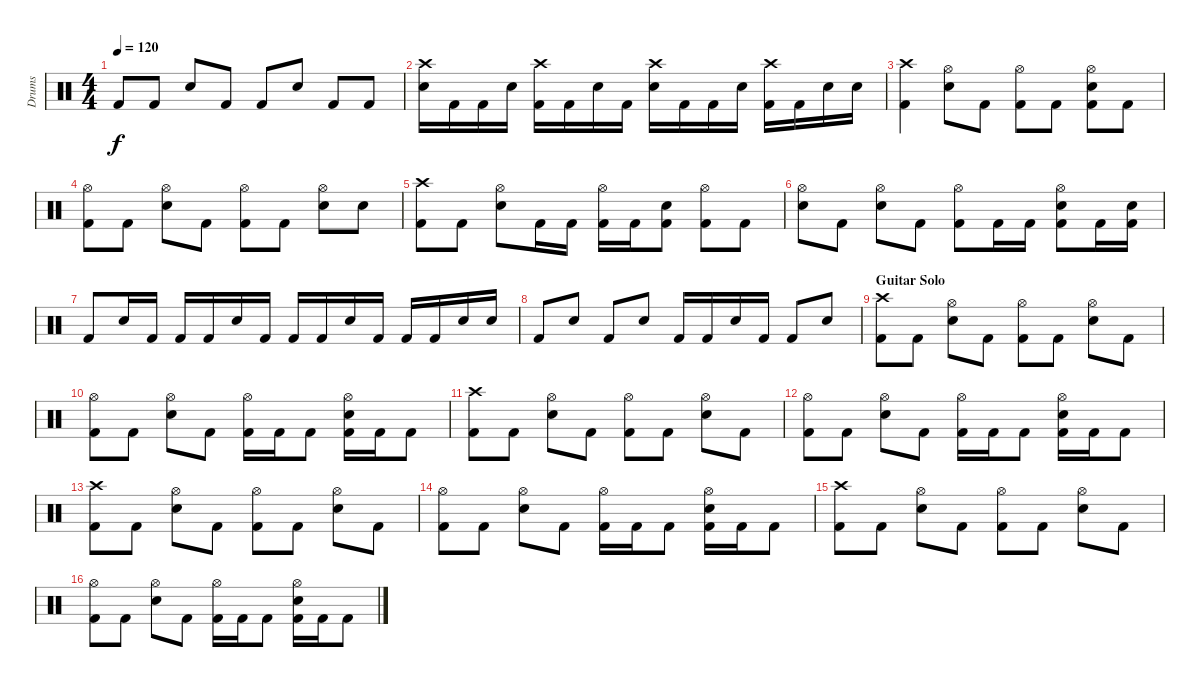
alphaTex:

\track ("Drums" "Drums") {instrument percussion}
\staff {score}
\articulation defaults
\ts (4 4)
\tempo 120
\clef neutral
\ks c "Kick (hit) 2".8{dy f} "Kick (hit) 2".8 "Electric Snare (hit)".8 "Kick (hit) 2".8 "Kick (hit) 2".8 "Electric Snare (hit)".8 "Kick (hit) 2".8 "Kick (hit) 2".8
|
("Crash high (hit)" "Electric Snare (hit)").16 "Kick (hit) 2".16 "Kick (hit) 2".16 "Electric Snare (hit)".16 ("Crash high (hit)" "Kick (hit) 2").16 "Kick (hit) 2".16 "Electric Snare (hit)".16 "Kick (hit) 2".16 ("Crash high (hit)" "Electric Snare (hit)").16 "Kick (hit) 2".16 "Kick (hit) 2".16 "Electric Snare (hit)".16 ("Crash high (hit)" "Kick (hit) 2").16 "Kick (hit) 2".16 "Electric Snare (hit)".16 "Electric Snare (hit)".16 |
("Crash high (hit)" "Kick (hit) 2").4 ("Hi-Hat (open)" "Electric Snare (hit)").8 "Kick (hit) 2".8 ("Hi-Hat (open)" "Kick (hit) 2").8 "Kick (hit) 2".8 ("Hi-Hat (open)" "Electric Snare (hit)" "Kick (hit) 2").8 "Kick (hit) 2".8 |
("Hi-Hat (open)" "Kick (hit) 2").8 "Kick (hit) 2".8 ("Hi-Hat (open)" "Electric Snare (hit)").8 "Kick (hit) 2".8 ("Hi-Hat (open)" "Kick (hit) 2").8 "Kick (hit) 2".8 ("Hi-Hat (open)" "Electric Snare (hit)").8 "Electric Snare (hit)".8 |
("Crash high (hit)" "Kick (hit) 2").8 "Kick (hit) 2".8 ("Hi-Hat (open)" "Electric Snare (hit)").8 "Kick (hit) 2".16 "Kick (hit) 2".16 ("Hi-Hat (open)" "Kick (hit) 2").16 "Kick (hit) 2".16 ("Electric Snare (hit)" "Kick (hit) 2").8 ("Hi-Hat (open)" "Kick (hit) 2").8 "Kick (hit) 2".8 |
("Hi-Hat (open)" "Electric Snare (hit)").8 "Kick (hit) 2".8 ("Hi-Hat (open)" "Electric Snare (hit)").8 "Kick (hit) 2".8 ("Hi-Hat (open)" "Kick (hit) 2").8 "Kick (hit) 2".16 "Kick (hit) 2".16 ("Hi-Hat (open)" "Electric Snare (hit)" "Kick (hit) 2").8 "Kick (hit) 2".16 ("Electric Snare (hit)" "Kick (hit) 2").16 |
"Kick (hit) 2".8 "Electric Snare (hit)".16 "Kick (hit) 2".16 "Kick (hit) 2".16 "Kick (hit) 2".16 "Electric Snare (hit)".16 "Kick (hit) 2".16 "Kick (hit) 2".16 "Kick (hit) 2".16 "Electric Snare (hit)".16 "Kick (hit) 2".16 "Kick (hit) 2".16 "Kick (hit) 2".16 "Electric Snare (hit)".16 "Electric Snare (hit)".16 |
"Kick (hit) 2".8 "Electric Snare (hit)".8 "Kick (hit) 2".8 "Electric Snare (hit)".8 "Kick (hit) 2".16 "Kick (hit) 2".16 "Electric Snare (hit)".16 "Kick (hit) 2".16 "Kick (hit) 2".8 "Electric Snare (hit)".8 |
\section ("" "Guitar Solo")
("Crash high (hit)" "Kick (hit) 2").8 "Kick (hit) 2".8 ("Hi-Hat (open)" "Electric Snare (hit)").8 "Kick (hit) 2".8 ("Hi-Hat (open)" "Kick (hit) 2").8 "Kick (hit) 2".8 ("Hi-Hat (open)" "Electric Snare (hit)").8 "Kick (hit) 2".8 |
("Hi-Hat (open)" "Kick (hit) 2").8 "Kick (hit) 2".8 ("Hi-Hat (open)" "Electric Snare (hit)").8 "Kick (hit) 2".8 ("Hi-Hat (open)" "Kick (hit) 2").16 "Kick (hit) 2".16 "Kick (hit) 2".8 ("Hi-Hat (open)" "Electric Snare (hit)" "Kick (hit) 2").16 "Kick (hit) 2".16 "Kick (hit) 2".8 |
("Crash high (hit)" "Kick (hit) 2").8 "Kick (hit) 2".8 ("Hi-Hat (open)" "Electric Snare (hit)").8 "Kick (hit) 2".8 ("Hi-Hat (open)" "Kick (hit) 2").8 "Kick (hit) 2".8 ("Hi-Hat (open)" "Electric Snare (hit)").8 "Kick (hit) 2".8 |
("Hi-Hat (open)" "Kick (hit) 2").8 "Kick (hit) 2".8 ("Hi-Hat (open)" "Electric Snare (hit)").8 "Kick (hit) 2".8 ("Hi-Hat (open)" "Kick (hit) 2").16 "Kick (hit) 2".16 "Kick (hit) 2".8 ("Hi-Hat (open)" "Electric Snare (hit)" "Kick (hit) 2").16 "Kick (hit) 2".16 "Kick (hit) 2".8 |
("Crash high (hit)" "Kick (hit) 2").8 "Kick (hit) 2".8 ("Hi-Hat (open)" "Electric Snare (hit)").8 "Kick (hit) 2".8 ("Hi-Hat (open)" "Kick (hit) 2").8 "Kick (hit) 2".8 ("Hi-Hat (open)" "Electric Snare (hit)").8 "Kick (hit) 2".8 |
("Hi-Hat (open)" "Kick (hit) 2").8 "Kick (hit) 2".8 ("Hi-Hat (open)" "Electric Snare (hit)").8 "Kick (hit) 2".8 ("Hi-Hat (open)" "Kick (hit) 2").16 "Kick (hit) 2".16 "Kick (hit) 2".8 ("Hi-Hat (open)" "Electric Snare (hit)" "Kick (hit) 2").16 "Kick (hit) 2".16 "Kick (hit) 2".8 |
("Crash high (hit)" "Kick (hit) 2").8 "Kick (hit) 2".8 ("Hi-Hat (open)" "Electric Snare (hit)").8 "Kick (hit) 2".8 ("Hi-Hat (open)" "Kick (hit) 2").8 "Kick (hit) 2".8 ("Hi-Hat (open)" "Electric Snare (hit)").8 "Kick (hit) 2".8 |
("Hi-Hat (open)" "Kick (hit) 2").8 "Kick (hit) 2".8 ("Hi-Hat (open)" "Electric Snare (hit)").8 "Kick (hit) 2".8 ("Hi-Hat (open)" "Kick (hit) 2").16 "Kick (hit) 2".16 "Kick (hit) 2".8 ("Hi-Hat (open)" "Electric Snare (hit)" "Kick (hit) 2").16 "Kick (hit) 2".16 "Kick (hit) 2".8
